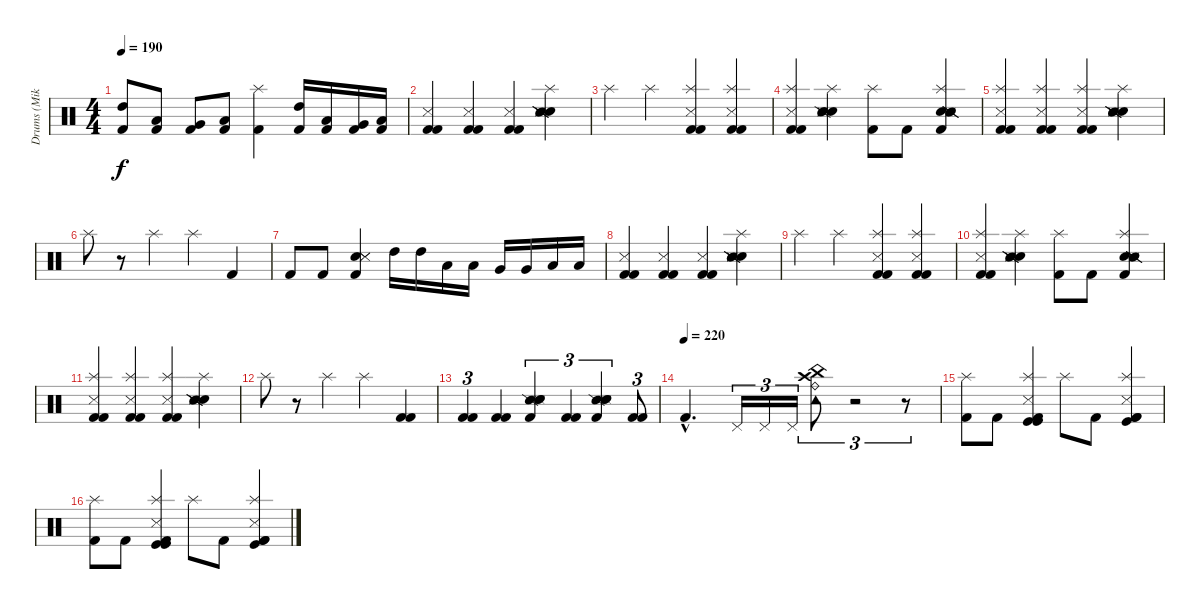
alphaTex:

\track ("Drums (Mike Justian)" "Drums (Mik") {instrument percussion}
\staff {score}
\articulation defaults
\ts (4 4)
\tempo 190
\clef neutral
\ks c
("Kick (hit) 2" "High Tom (hit)").8{dy f} ("Kick (hit) 2" "Low Tom (hit)").8 ("Kick (hit) 2" "Very Low Tom (hit)").8 ("Kick (hit) 2" "Low Floor Tom (hit)").8 ("Splash (hit)" "Kick (hit) 2").4 ("Kick (hit) 2" "High Tom (hit)").16 ("Kick (hit) 2" "Low Tom (hit)").16 ("Kick (hit) 2" "Very Low Tom (hit)").16 ("Kick (hit) 2" "Low Floor Tom (hit)").16 |
("Kick (hit) 2" "Snare (side stick) 3" "Kick (hit) 2").4 ("Kick (hit) 2" "Snare (side stick) 3" "Kick (hit) 2").4 ("Kick (hit) 2" "Snare (side stick) 3" "Kick (hit) 2").4 ("Splash (hit)" "Electric Snare (hit)" "Snare (side stick) 2" "Snare (side stick) 2" "Snare (side stick) 3" "Snare (side stick) 3").4 |
"Splash (hit)".4 "Splash (hit)".4 ("Splash (hit)" "Kick (hit) 2" "Snare (side stick) 3" "Kick (hit) 2").4 ("Splash (hit)" "Kick (hit) 2" "Snare (side stick) 3" "Kick (hit) 2").4 |
("Splash (hit)" "Kick (hit) 2" "Snare (side stick) 3" "Kick (hit) 2").4 ("Splash (hit)" "Electric Snare (hit)" "Snare (hit)" "Snare (side stick) 2" "Snare (side stick) 3" "Snare (side stick) 3").4 ("Splash (hit)" "Kick (hit) 2").8 "Kick (hit) 2".8 ("Splash (hit)" "Electric Snare (hit)" "Snare (side stick) 2" "Snare (side stick) 2" "Snare (side stick) 3" "Kick (hit) 2").4 |
("Splash (hit)" "Kick (hit) 2" "Snare (side stick) 3" "Kick (hit) 2").4 ("Splash (hit)" "Kick (hit) 2" "Snare (side stick) 3" "Kick (hit) 2").4 ("Splash (hit)" "Kick (hit) 2" "Snare (side stick) 3" "Kick (hit) 2").4 ("Splash (hit)" "Electric Snare (hit)" "Snare (side stick) 2" "Snare (side stick) 2" "Snare (side stick) 3" "Snare (side stick) 3").4 |
"Splash (hit)".8 r.8 "Splash (hit)".4 "Splash (hit)".4 "Kick (hit) 2".4 |
"Kick (hit) 2".8 "Kick (hit) 2".8 ("Electric Snare (hit)" "Kick (hit) 2" "Snare (side stick) 3" "Snare (side stick) 3").4 "High Tom (hit)".16 "High Tom (hit)".16 "Low Tom (hit)".16 "Low Tom (hit)".16 "Very Low Tom (hit)".16 "Very Low Tom (hit)".16 "Low Floor Tom (hit)".16 "Low Floor Tom (hit)".16 |
("Kick (hit) 2" "Snare (side stick) 3" "Kick (hit) 2").4 ("Kick (hit) 2" "Snare (side stick) 3" "Kick (hit) 2").4 ("Kick (hit) 2" "Snare (side stick) 3" "Kick (hit) 2").4 ("Splash (hit)" "Electric Snare (hit)" "Snare (side stick) 2" "Snare (side stick) 2" "Snare (side stick) 3" "Snare (side stick) 3").4 |
"Splash (hit)".4 "Splash (hit)".4 ("Splash (hit)" "Kick (hit) 2" "Snare (side stick) 3" "Kick (hit) 2").4 ("Splash (hit)" "Kick (hit) 2" "Snare (side stick) 3" "Kick (hit) 2").4 |
("Splash (hit)" "Kick (hit) 2" "Snare (side stick) 3" "Kick (hit) 2").4 ("Splash (hit)" "Electric Snare (hit)" "Snare (side stick) 2" "Snare (side stick) 2" "Snare (side stick) 3" "Snare (side stick) 3").4 ("Splash (hit)" "Kick (hit) 2").8 "Kick (hit) 2".8 ("Splash (hit)" "Electric Snare (hit)" "Snare (side stick) 2" "Snare (side stick) 2" "Snare (side stick) 3" "Kick (hit) 2").4 |
("Splash (hit)" "Kick (hit) 2" "Snare (side stick) 3" "Kick (hit) 2").4 ("Splash (hit)" "Kick (hit) 2" "Snare (side stick) 3" "Kick (hit) 2").4 ("Splash (hit)" "Kick (hit) 2" "Snare (side stick) 3" "Kick (hit) 2").4 ("Splash (hit)" "Electric Snare (hit)" "Snare (side stick) 2" "Snare (side stick) 2" "Snare (side stick) 3" "Snare (side stick) 3").4 |
"Splash (hit)".8 r.8 "Splash (hit)".4 "Splash (hit)".4 ("Kick (hit) 2" "Kick (hit) 2").4 |
("Kick (hit) 2" "Kick (hit) 2").4{tu (3 2)} ("Kick (hit) 2" "Kick (hit) 2").4 ("Snare (side stick) 2" "Electric Snare (hit)" "Snare (side stick) 3" "Kick (hit) 2" "Electric Snare (hit)").4{tu (3 2)} ("Kick (hit) 2" "Kick (hit) 2").4{tu (3 2)} ("Snare (side stick) 2" "Electric Snare (hit)" "Snare (side stick) 3" "Kick (hit) 2" "Electric Snare (hit)").4{tu (3 2)} ("Kick (hit) 2" "Kick (hit) 2").8{tu (3 2)} |
\tempo (220)
"Kick (hit) 2"{hac}.4{d} "Pedal Hi-Hat (hit)".16{tu (3 2)} "Pedal Hi-Hat (hit)".16{tu (3 2)} "Pedal Hi-Hat (hit)".16{tu (3 2)} ("China (hit)" "Crash high (hit)" "Ride (bell)" "Tambourine (hit)").8{tu (3 2)} r.2{tu (3 2)} r.8{tu (3 2)} |
("Splash (hit)" "Kick (hit) 2").8 "Kick (hit) 2".8 ("Splash (hit)" "Snare (side stick) 3" "Kick (hit) 2" "Kick (hit)" "Kick (hit)").4 "Splash (hit)".8 "Kick (hit) 2".8 ("Splash (hit)" "Snare (side stick) 3" "Kick (hit)" "Kick (hit) 2" "Kick (hit) 2").4 |
("Splash (hit)" "Kick (hit) 2").8 "Kick (hit) 2".8 ("Splash (hit)" "Snare (side stick) 3" "Kick (hit) 2" "Kick (hit)" "Kick (hit)").4 "Splash (hit)".8 "Kick (hit) 2".8 ("Splash (hit)" "Snare (side stick) 3" "Kick (hit)" "Kick (hit) 2" "Kick (hit) 2").4
